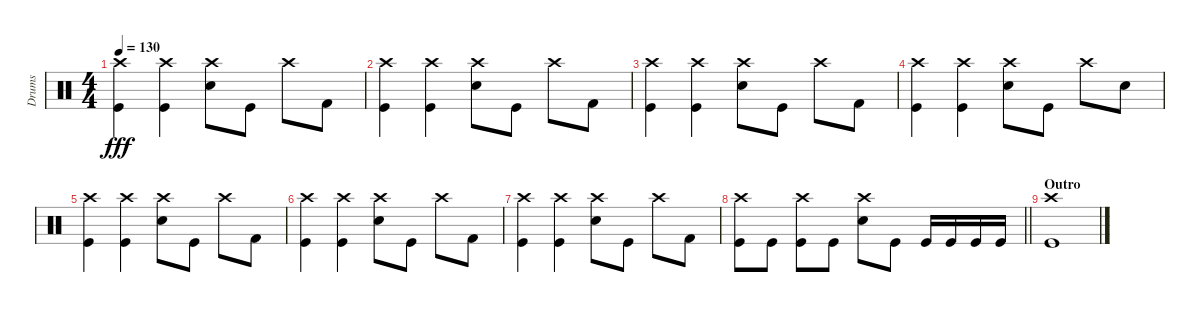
\track ("Drums" "Drums") {instrument percussion}
\staff {score}
\articulation defaults
\ts (4 4)
\tempo 130
\clef neutral
\ks c
("Crash high (hit)" "Kick (hit)").4{dy fff} ("Crash high (hit)" "Kick (hit)").4 ("Crash high (hit)" "Snare (hit) 2").8 "Kick (hit)".8 "Crash high (hit)".8 "Kick (hit) 2".8 |
("Crash high (hit)" "Kick (hit)").4 ("Crash high (hit)" "Kick (hit)").4 ("Crash high (hit)" "Snare (hit) 2").8 "Kick (hit)".8 "Crash high (hit)".8 "Kick (hit) 2".8 |
("Crash high (hit)" "Kick (hit)").4 ("Crash high (hit)" "Kick (hit)").4 ("Crash high (hit)" "Snare (hit) 2").8 "Kick (hit)".8 "Crash high (hit)".8 "Kick (hit) 2".8 |
("Crash high (hit)" "Kick (hit)").4 ("Crash high (hit)" "Kick (hit)").4 ("Crash high (hit)" "Snare (hit) 2").8 "Kick (hit)".8 "Crash high (hit)".8 "Snare (hit) 2".8 |
("Crash high (hit)" "Kick (hit)").4 ("Crash high (hit)" "Kick (hit)").4 ("Crash high (hit)" "Snare (hit) 2").8 "Kick (hit)".8 "Crash high (hit)".8 "Kick (hit) 2".8 |
("Crash high (hit)" "Kick (hit)").4 ("Crash high (hit)" "Kick (hit)").4 ("Crash high (hit)" "Snare (hit) 2").8 "Kick (hit)".8 "Crash high (hit)".8 "Kick (hit) 2".8 |
("Crash high (hit)" "Kick (hit)").4 ("Crash high (hit)" "Kick (hit)").4 ("Crash high (hit)" "Snare (hit) 2").8 "Kick (hit)".8 "Crash high (hit)".8 "Kick (hit) 2".8 |
\barLineRight lightlight
("Crash high (hit)" "Kick (hit)").8 "Kick (hit)".8 ("Kick (hit)" "Crash high (hit)").8 "Kick (hit)".8 ("Crash high (hit)" "Snare (hit) 2").8 "Kick (hit)".8 "Kick (hit)".16 "Kick (hit)".16 "Kick (hit)".16 "Kick (hit)".16 |
\section ("" "Outro")
("Crash high (hit)" "Kick (hit)").1
